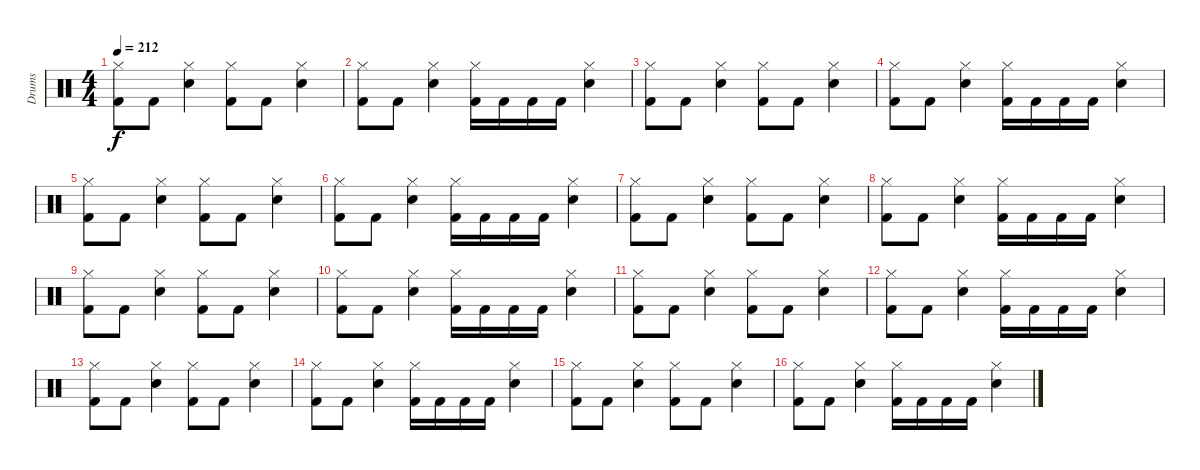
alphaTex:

\track ("Drums" "Drums") {instrument percussion}
\staff {score}
\articulation defaults
\ts (4 4)
\tempo 212
\clef neutral
\ks c
("Hi-Hat (closed)" "Kick (hit) 2").8{dy f} "Kick (hit) 2".8 ("Hi-Hat (closed)" "Snare (hit) 2").4 ("Hi-Hat (closed)" "Kick (hit) 2").8 "Kick (hit) 2".8 ("Hi-Hat (closed)" "Snare (hit) 2").4 |
("Hi-Hat (closed)" "Kick (hit) 2").8 "Kick (hit) 2".8 ("Hi-Hat (closed)" "Snare (hit) 2").4 ("Hi-Hat (closed)" "Kick (hit) 2").16 "Kick (hit) 2".16 "Kick (hit) 2".16 "Kick (hit) 2".16 ("Hi-Hat (closed)" "Snare (hit) 2").4 |
("Hi-Hat (closed)" "Kick (hit) 2").8 "Kick (hit) 2".8 ("Hi-Hat (closed)" "Snare (hit) 2").4 ("Hi-Hat (closed)" "Kick (hit) 2").8 "Kick (hit) 2".8 ("Hi-Hat (closed)" "Snare (hit) 2").4 |
("Hi-Hat (closed)" "Kick (hit) 2").8 "Kick (hit) 2".8 ("Hi-Hat (closed)" "Snare (hit) 2").4 ("Hi-Hat (closed)" "Kick (hit) 2").16 "Kick (hit) 2".16 "Kick (hit) 2".16 "Kick (hit) 2".16 ("Hi-Hat (closed)" "Snare (hit) 2").4 |
("Hi-Hat (closed)" "Kick (hit) 2").8 "Kick (hit) 2".8 ("Hi-Hat (closed)" "Snare (hit) 2").4 ("Hi-Hat (closed)" "Kick (hit) 2").8 "Kick (hit) 2".8 ("Hi-Hat (closed)" "Snare (hit) 2").4 |
("Hi-Hat (closed)" "Kick (hit) 2").8 "Kick (hit) 2".8 ("Hi-Hat (closed)" "Snare (hit) 2").4 ("Hi-Hat (closed)" "Kick (hit) 2").16 "Kick (hit) 2".16 "Kick (hit) 2".16 "Kick (hit) 2".16 ("Hi-Hat (closed)" "Snare (hit) 2").4 |
("Hi-Hat (closed)" "Kick (hit) 2").8 "Kick (hit) 2".8 ("Hi-Hat (closed)" "Snare (hit) 2").4 ("Hi-Hat (closed)" "Kick (hit) 2").8 "Kick (hit) 2".8 ("Hi-Hat (closed)" "Snare (hit) 2").4 |
("Hi-Hat (closed)" "Kick (hit) 2").8 "Kick (hit) 2".8 ("Hi-Hat (closed)" "Snare (hit) 2").4 ("Hi-Hat (closed)" "Kick (hit) 2").16 "Kick (hit) 2".16 "Kick (hit) 2".16 "Kick (hit) 2".16 ("Hi-Hat (closed)" "Snare (hit) 2").4 |
("Hi-Hat (closed)" "Kick (hit) 2").8 "Kick (hit) 2".8 ("Hi-Hat (closed)" "Snare (hit) 2").4 ("Hi-Hat (closed)" "Kick (hit) 2").8 "Kick (hit) 2".8 ("Hi-Hat (closed)" "Snare (hit) 2").4 |
("Hi-Hat (closed)" "Kick (hit) 2").8 "Kick (hit) 2".8 ("Hi-Hat (closed)" "Snare (hit) 2").4 ("Hi-Hat (closed)" "Kick (hit) 2").16 "Kick (hit) 2".16 "Kick (hit) 2".16 "Kick (hit) 2".16 ("Hi-Hat (closed)" "Snare (hit) 2").4 |
("Hi-Hat (closed)" "Kick (hit) 2").8 "Kick (hit) 2".8 ("Hi-Hat (closed)" "Snare (hit) 2").4 ("Hi-Hat (closed)" "Kick (hit) 2").8 "Kick (hit) 2".8 ("Hi-Hat (closed)" "Snare (hit) 2").4 |
("Hi-Hat (closed)" "Kick (hit) 2").8 "Kick (hit) 2".8 ("Hi-Hat (closed)" "Snare (hit) 2").4 ("Hi-Hat (closed)" "Kick (hit) 2").16 "Kick (hit) 2".16 "Kick (hit) 2".16 "Kick (hit) 2".16 ("Hi-Hat (closed)" "Snare (hit) 2").4 |
("Hi-Hat (closed)" "Kick (hit) 2").8 "Kick (hit) 2".8 ("Hi-Hat (closed)" "Snare (hit) 2").4 ("Hi-Hat (closed)" "Kick (hit) 2").8 "Kick (hit) 2".8 ("Hi-Hat (closed)" "Snare (hit) 2").4 |
("Hi-Hat (closed)" "Kick (hit) 2").8 "Kick (hit) 2".8 ("Hi-Hat (closed)" "Snare (hit) 2").4 ("Hi-Hat (closed)" "Kick (hit) 2").16 "Kick (hit) 2".16 "Kick (hit) 2".16 "Kick (hit) 2".16 ("Hi-Hat (closed)" "Snare (hit) 2").4 |
("Hi-Hat (closed)" "Kick (hit) 2").8 "Kick (hit) 2".8 ("Hi-Hat (closed)" "Snare (hit) 2").4 ("Hi-Hat (closed)" "Kick (hit) 2").8 "Kick (hit) 2".8 ("Hi-Hat (closed)" "Snare (hit) 2").4 |
("Hi-Hat (closed)" "Kick (hit) 2").8 "Kick (hit) 2".8 ("Hi-Hat (closed)" "Snare (hit) 2").4 ("Hi-Hat (closed)" "Kick (hit) 2").16 "Kick (hit) 2".16 "Kick (hit) 2".16 "Kick (hit) 2".16 ("Hi-Hat (closed)" "Snare (hit) 2").4
